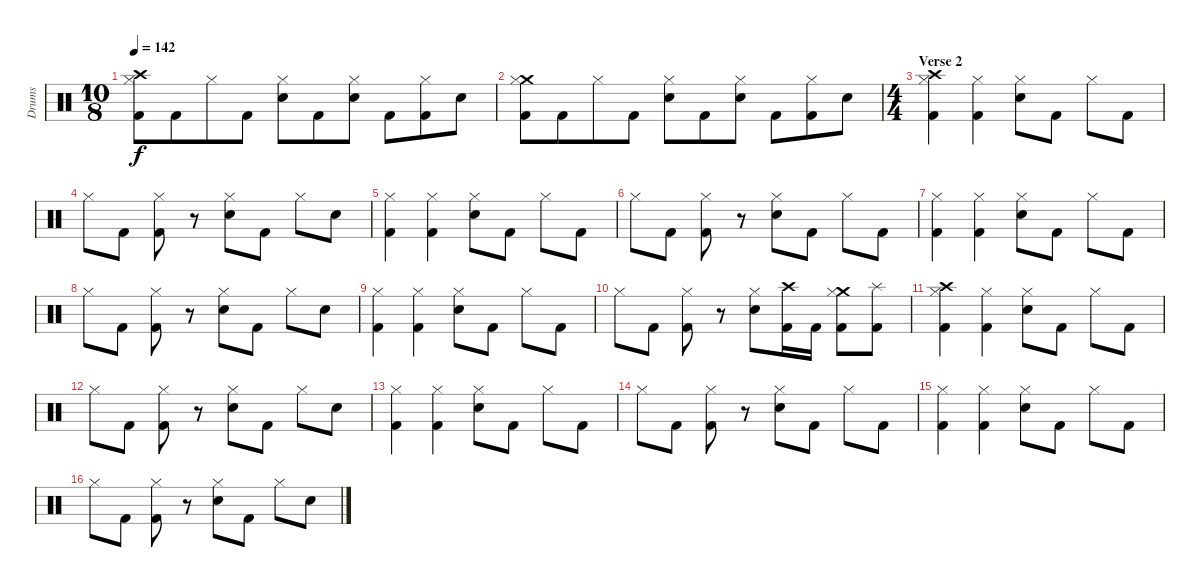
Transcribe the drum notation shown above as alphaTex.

\track ("Drums" "Drums") {instrument percussion}
\staff {score}
\articulation defaults
\ts (10 8)
\tempo 142
\clef neutral
\ks c
("Crash high (hit)" "Hi-Hat (closed)" "Kick (hit) 2").8{dy f} "Kick (hit) 2".8 "Hi-Hat (closed)".8 "Kick (hit) 2".8 ("Hi-Hat (closed)" "Electric Snare (hit)").8 "Kick (hit) 2".8 ("Hi-Hat (closed)" "Electric Snare (hit)").8 "Kick (hit) 2".8 ("Hi-Hat (closed)" "Kick (hit) 2").8 "Electric Snare (hit)".8 |
("Crash medium (hit)" "Hi-Hat (closed)" "Kick (hit) 2").8 "Kick (hit) 2".8 "Hi-Hat (closed)".8 "Kick (hit) 2".8 ("Hi-Hat (closed)" "Electric Snare (hit)").8 "Kick (hit) 2".8 ("Hi-Hat (closed)" "Electric Snare (hit)").8 "Kick (hit) 2".8 ("Hi-Hat (closed)" "Kick (hit) 2").8 "Electric Snare (hit)".8 |
\ts (4 4)
\section ("" "Verse 2")
("Crash high (hit)" "Hi-Hat (closed)" "Kick (hit) 2").4 ("Hi-Hat (closed)" "Kick (hit) 2").4 ("Hi-Hat (closed)" "Electric Snare (hit)").8 "Kick (hit) 2".8 "Hi-Hat (closed)".8 "Kick (hit) 2".8 |
"Hi-Hat (closed)".8 "Kick (hit) 2".8 ("Hi-Hat (closed)" "Kick (hit) 2").8 r.8 ("Hi-Hat (closed)" "Electric Snare (hit)").8 "Kick (hit) 2".8 "Hi-Hat (closed)".8 "Electric Snare (hit)".8 |
("Hi-Hat (closed)" "Kick (hit) 2").4 ("Hi-Hat (closed)" "Kick (hit) 2").4 ("Hi-Hat (closed)" "Electric Snare (hit)").8 "Kick (hit) 2".8 "Hi-Hat (closed)".8 "Kick (hit) 2".8 |
"Hi-Hat (closed)".8 "Kick (hit) 2".8 ("Hi-Hat (closed)" "Kick (hit) 2").8 r.8 ("Hi-Hat (closed)" "Electric Snare (hit)").8 "Kick (hit) 2".8 "Hi-Hat (closed)".8 "Kick (hit) 2".8 |
("Hi-Hat (closed)" "Kick (hit) 2").4 ("Hi-Hat (closed)" "Kick (hit) 2").4 ("Hi-Hat (closed)" "Electric Snare (hit)").8 "Kick (hit) 2".8 "Hi-Hat (closed)".8 "Kick (hit) 2".8 |
"Hi-Hat (closed)".8 "Kick (hit) 2".8 ("Hi-Hat (closed)" "Kick (hit) 2").8 r.8 ("Hi-Hat (closed)" "Electric Snare (hit)").8 "Kick (hit) 2".8 "Hi-Hat (closed)".8 "Electric Snare (hit)".8 |
("Hi-Hat (closed)" "Kick (hit) 2").4 ("Hi-Hat (closed)" "Kick (hit) 2").4 ("Hi-Hat (closed)" "Electric Snare (hit)").8 "Kick (hit) 2".8 "Hi-Hat (closed)".8 "Kick (hit) 2".8 |
"Hi-Hat (closed)".8 "Kick (hit) 2".8 ("Hi-Hat (closed)" "Kick (hit) 2").8 r.8 ("Hi-Hat (closed)" "Electric Snare (hit)").8 ("Crash high (hit)" "Kick (hit) 2").16 "Kick (hit) 2".16 ("Crash medium (hit)" "Hi-Hat (closed)" "Kick (hit) 2").8 ("Splash (hit)" "Kick (hit) 2").8 |
("Crash high (hit)" "Hi-Hat (closed)" "Kick (hit) 2").4 ("Hi-Hat (closed)" "Kick (hit) 2").4 ("Hi-Hat (closed)" "Electric Snare (hit)").8 "Kick (hit) 2".8 "Hi-Hat (closed)".8 "Kick (hit) 2".8 |
"Hi-Hat (closed)".8 "Kick (hit) 2".8 ("Hi-Hat (closed)" "Kick (hit) 2").8 r.8 ("Hi-Hat (closed)" "Electric Snare (hit)").8 "Kick (hit) 2".8 "Hi-Hat (closed)".8 "Electric Snare (hit)".8 |
("Hi-Hat (closed)" "Kick (hit) 2").4 ("Hi-Hat (closed)" "Kick (hit) 2").4 ("Hi-Hat (closed)" "Electric Snare (hit)").8 "Kick (hit) 2".8 "Hi-Hat (closed)".8 "Kick (hit) 2".8 |
"Hi-Hat (closed)".8 "Kick (hit) 2".8 ("Hi-Hat (closed)" "Kick (hit) 2").8 r.8 ("Hi-Hat (closed)" "Electric Snare (hit)").8 "Kick (hit) 2".8 "Hi-Hat (closed)".8 "Kick (hit) 2".8 |
("Hi-Hat (closed)" "Kick (hit) 2").4 ("Hi-Hat (closed)" "Kick (hit) 2").4 ("Hi-Hat (closed)" "Electric Snare (hit)").8 "Kick (hit) 2".8 "Hi-Hat (closed)".8 "Kick (hit) 2".8 |
"Hi-Hat (closed)".8 "Kick (hit) 2".8 ("Hi-Hat (closed)" "Kick (hit) 2").8 r.8 ("Hi-Hat (closed)" "Electric Snare (hit)").8 "Kick (hit) 2".8 "Hi-Hat (closed)".8 "Electric Snare (hit)".8
